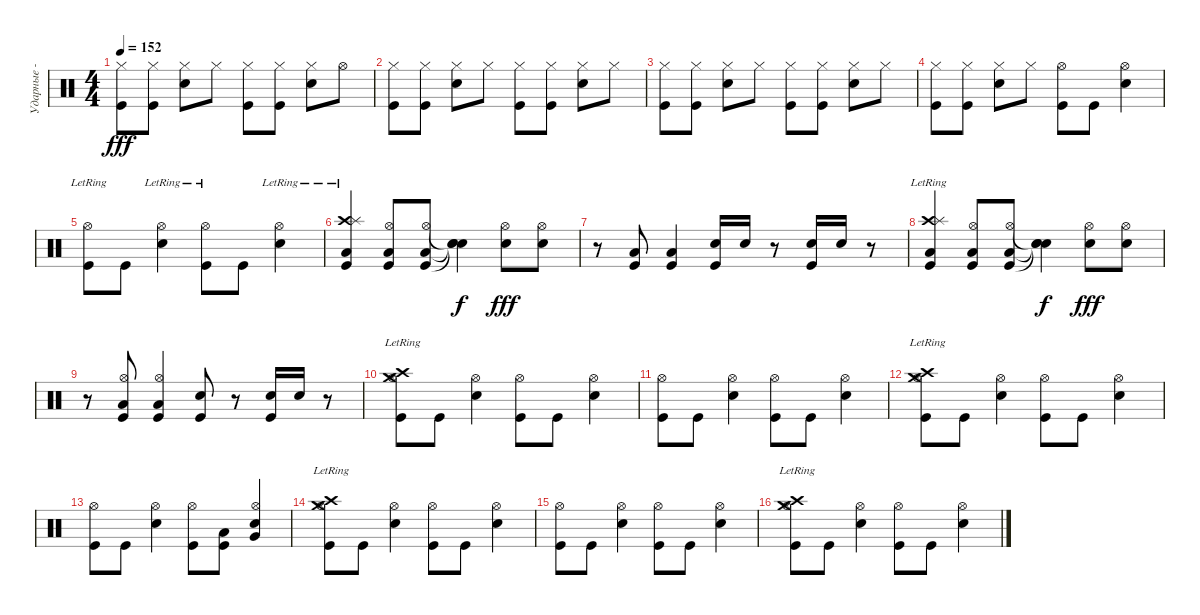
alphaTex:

\track ("Ударные - Трэвис" "Ударные - ") {instrument percussion}
\staff {score}
\articulation defaults
\ts (4 4)
\tempo 152
\clef neutral
\ks c
("Hi-Hat (closed)" "Kick (hit)").8{dy fff} ("Hi-Hat (closed)" "Kick (hit)").8 ("Hi-Hat (closed)" "Snare (hit) 2").8 "Hi-Hat (closed)".8 ("Hi-Hat (closed)" "Kick (hit)").8 ("Hi-Hat (closed)" "Kick (hit)").8 ("Hi-Hat (closed)" "Snare (hit) 2").8 "Hi-Hat (open)".8 |
("Hi-Hat (closed)" "Kick (hit)").8 ("Hi-Hat (closed)" "Kick (hit)").8 ("Hi-Hat (closed)" "Snare (hit) 2").8 "Hi-Hat (closed)".8 ("Hi-Hat (closed)" "Kick (hit)").8 ("Hi-Hat (closed)" "Kick (hit)").8 ("Hi-Hat (closed)" "Snare (hit) 2").8 "Hi-Hat (closed)".8 |
("Hi-Hat (closed)" "Kick (hit)").8 ("Hi-Hat (closed)" "Kick (hit)").8 ("Hi-Hat (closed)" "Snare (hit) 2").8 "Hi-Hat (closed)".8 ("Hi-Hat (closed)" "Kick (hit)").8 ("Hi-Hat (closed)" "Kick (hit)").8 ("Hi-Hat (closed)" "Snare (hit) 2").8 "Hi-Hat (closed)".8 |
("Hi-Hat (closed)" "Kick (hit)").8 ("Hi-Hat (closed)" "Kick (hit)").8 ("Hi-Hat (closed)" "Snare (hit) 2").8 "Hi-Hat (closed)".8 ("Hi-Hat (open)" "Kick (hit)").8 "Kick (hit)".8 ("Hi-Hat (open)" "Snare (hit) 2").4 |
("Hi-Hat (open)"{lr} "Kick (hit)").8 "Kick (hit)".8 ("Hi-Hat (open)"{lr} "Snare (hit) 2").4 ("Hi-Hat (open)"{lr} "Kick (hit)").8 "Kick (hit)".8 ("Hi-Hat (open)"{lr} "Snare (hit) 2").4 |
("Crash high (hit)"{lr} "Splash (hit)"{lr} "Low Tom (hit)"{lr} "Kick (hit)"{lr}).4 ("Hi-Hat (open)" "Low Tom (hit)" "Kick (hit)").8 ("Hi-Hat (open)" "Low Tom (hit)" "Kick (hit)").8 ("Snare (hit)"{t} "Snare (hit)"{t} "Snare (hit)"{t}).4{dy f} ("Hi-Hat (open)" "Snare (hit) 2").8{dy fff} ("Hi-Hat (open)" "Snare (hit) 2").8 |
r.8 ("Low Tom (hit)" "Kick (hit)").8 ("Low Tom (hit)" "Kick (hit)").4 ("Snare (hit) 2" "Kick (hit)").16 "Snare (hit) 2".16 r.8 ("Snare (hit) 2" "Kick (hit)").16 "Snare (hit) 2".16 r.8 |
("Crash high (hit)"{lr} "Splash (hit)"{lr} "Low Tom (hit)"{lr} "Kick (hit)"{lr}).4 ("Hi-Hat (open)" "Low Tom (hit)" "Kick (hit)").8 ("Hi-Hat (open)" "Low Tom (hit)" "Kick (hit)").8 ("Snare (hit)"{t} "Snare (hit)"{t} "Snare (hit)"{t}).4{dy f} ("Hi-Hat (open)" "Snare (hit) 2").8{dy fff} ("Hi-Hat (open)" "Snare (hit) 2").8 |
r.8 ("Hi-Hat (open)" "Low Tom (hit)" "Kick (hit)").8 ("Hi-Hat (open)" "Low Tom (hit)" "Kick (hit)").4 ("Snare (hit) 2" "Kick (hit)").8 r.8 ("Snare (hit) 2" "Kick (hit)").16 "Snare (hit) 2".16 r.8 |
("Crash high (hit)"{lr} "Hi-Hat (open)" "Crash medium (hit)"{lr} "Kick (hit)").8 "Kick (hit)".8 ("Hi-Hat (open)" "Snare (hit) 2").4 ("Hi-Hat (open)" "Kick (hit)").8 "Kick (hit)".8 ("Hi-Hat (open)" "Snare (hit) 2").4 |
("Hi-Hat (open)" "Kick (hit)").8 "Kick (hit)".8 ("Hi-Hat (open)" "Snare (hit) 2").4 ("Hi-Hat (open)" "Kick (hit)").8 "Kick (hit)".8 ("Hi-Hat (open)" "Snare (hit) 2").4 |
("Crash high (hit)"{lr} "Hi-Hat (open)" "Crash medium (hit)"{lr} "Kick (hit)").8 "Kick (hit)".8 ("Hi-Hat (open)" "Snare (hit) 2").4 ("Hi-Hat (open)" "Kick (hit)").8 "Kick (hit)".8 ("Hi-Hat (open)" "Snare (hit) 2").4 |
("Hi-Hat (open)" "Kick (hit)").8 "Kick (hit)".8 ("Hi-Hat (open)" "Snare (hit) 2").4 ("Hi-Hat (open)" "Kick (hit)").8 ("Low Tom (hit)" "Kick (hit)").8 ("Hi-Hat (open)" "Very Low Tom (hit)" "Snare (hit) 2").4 |
("Crash high (hit)"{lr} "Hi-Hat (open)" "Crash medium (hit)"{lr} "Kick (hit)").8 "Kick (hit)".8 ("Hi-Hat (open)" "Snare (hit) 2").4 ("Hi-Hat (open)" "Kick (hit)").8 "Kick (hit)".8 ("Hi-Hat (open)" "Snare (hit) 2").4 |
("Hi-Hat (open)" "Kick (hit)").8 "Kick (hit)".8 ("Hi-Hat (open)" "Snare (hit) 2").4 ("Hi-Hat (open)" "Kick (hit)").8 "Kick (hit)".8 ("Hi-Hat (open)" "Snare (hit) 2").4 |
("Crash high (hit)"{lr} "Hi-Hat (open)" "Crash medium (hit)"{lr} "Kick (hit)").8 "Kick (hit)".8 ("Hi-Hat (open)" "Snare (hit) 2").4 ("Hi-Hat (open)" "Kick (hit)").8 "Kick (hit)".8 ("Hi-Hat (open)" "Snare (hit) 2").4
